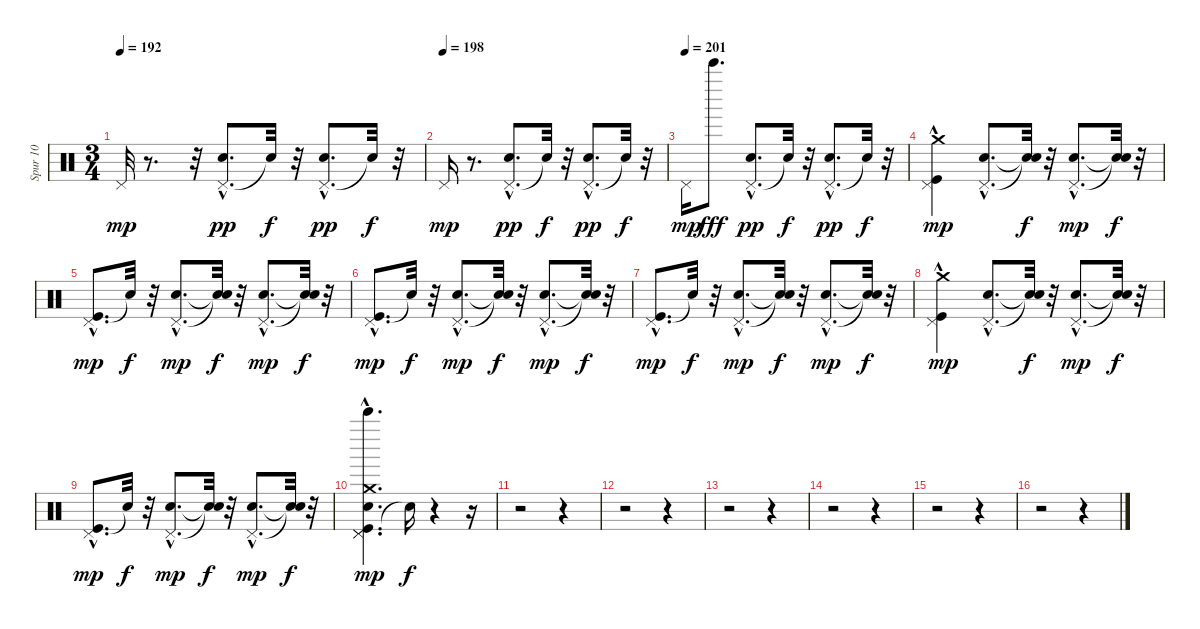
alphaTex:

\track ("Spur 10" "Spur 10") {instrument percussion}
\staff {score}
\articulation defaults
\ts (3 4)
\tempo 192
\clef neutral
\ks c "Pedal Hi-Hat (hit)".32{dy mp}
r.8{d} r.32 ("Pedal Hi-Hat (hit)"{hac} "Snare (hit) 2").8{d dy pp} "Snare (hit)"{t}.32{dy f} r.32 ("Pedal Hi-Hat (hit)"{hac} "Snare (hit) 2").8{d dy pp} "Snare (hit)"{t}.32{dy f} r.32 |
\tempo (198)
"Pedal Hi-Hat (hit)".16{dy mp} r.8{d} ("Pedal Hi-Hat (hit)"{hac} "Snare (hit) 2").8{d dy pp} "Snare (hit)"{t}.32{dy f} r.32 ("Pedal Hi-Hat (hit)"{hac} "Snare (hit) 2").8{d dy pp} "Snare (hit)"{t}.32{dy f} r.32 |
\tempo (201)
"Pedal Hi-Hat (hit)".16{dy mp} "Bell Tree (hit)".8{d dy fff} ("Pedal Hi-Hat (hit)"{hac} "Snare (hit) 2").8{d dy pp} "Snare (hit)"{t}.32{dy f} r.32 ("Pedal Hi-Hat (hit)"{hac} "Snare (hit) 2").8{d dy pp} "Snare (hit)"{t}.32{dy f} r.32 |
("Kick (hit)"{hac} "Crash medium (hit)" "Pedal Hi-Hat (hit)").4{dy mp} ("Snare (hit) 2"{hac} "Pedal Hi-Hat (hit)"{hac}).8{d} ("Snare (hit)"{t} "Snare (hit)"{t}).32{dy f} r.32 ("Snare (hit) 2"{hac} "Pedal Hi-Hat (hit)"{hac}).8{d dy mp} ("Snare (hit)"{t} "Snare (hit)"{t}).32{dy f} r.32 |
("Kick (hit)"{hac} "Pedal Hi-Hat (hit)").8{d dy mp} "Snare (hit)"{t}.32{dy f} r.32 ("Snare (hit) 2"{hac} "Pedal Hi-Hat (hit)"{hac}).8{d dy mp} ("Snare (hit)"{t} "Snare (hit)"{t}).32{dy f} r.32 ("Snare (hit) 2"{hac} "Pedal Hi-Hat (hit)"{hac}).8{d dy mp} ("Snare (hit)"{t} "Snare (hit)"{t}).32{dy f} r.32 |
("Kick (hit)"{hac} "Pedal Hi-Hat (hit)").8{d dy mp} "Snare (hit)"{t}.32{dy f} r.32 ("Snare (hit) 2"{hac} "Pedal Hi-Hat (hit)"{hac}).8{d dy mp} ("Snare (hit)"{t} "Snare (hit)"{t}).32{dy f} r.32 ("Snare (hit) 2"{hac} "Pedal Hi-Hat (hit)"{hac}).8{d dy mp} ("Snare (hit)"{t} "Snare (hit)"{t}).32{dy f} r.32 |
("Kick (hit)"{hac} "Pedal Hi-Hat (hit)").8{d dy mp} "Snare (hit)"{t}.32{dy f} r.32 ("Snare (hit) 2"{hac} "Pedal Hi-Hat (hit)"{hac}).8{d dy mp} ("Snare (hit)"{t} "Snare (hit)"{t}).32{dy f} r.32 ("Snare (hit) 2"{hac} "Pedal Hi-Hat (hit)"{hac}).8{d dy mp} ("Snare (hit)"{t} "Snare (hit)"{t}).32{dy f} r.32 |
("Kick (hit)"{hac} "Crash medium (hit)" "Pedal Hi-Hat (hit)").4{dy mp} ("Snare (hit) 2"{hac} "Pedal Hi-Hat (hit)"{hac}).8{d} ("Snare (hit)"{t} "Snare (hit)"{t}).32{dy f} r.32 ("Snare (hit) 2"{hac} "Pedal Hi-Hat (hit)"{hac}).8{d dy mp} ("Snare (hit)"{t} "Snare (hit)"{t}).32{dy f} r.32 |
("Kick (hit)"{hac} "Pedal Hi-Hat (hit)").8{d dy mp} "Snare (hit)"{t}.32{dy f} r.32 ("Snare (hit) 2"{hac} "Pedal Hi-Hat (hit)"{hac}).8{d dy mp} ("Snare (hit)"{t} "Snare (hit)"{t}).32{dy f} r.32 ("Snare (hit) 2"{hac} "Pedal Hi-Hat (hit)"{hac}).8{d dy mp} ("Snare (hit)"{t} "Snare (hit)"{t}).32{dy f} r.32 |
("Kick (hit)"{hac} "Snare (hit) 2"{hac} "Pedal Hi-Hat (hit)" "Crash medium (hit)" "Bell Tree (hit)"{hac} "Pedal Hi-Hat (hit)"{hac}).4{d dy mp} "Snare (hit)"{t}.16{dy f} r.4 r.16 |
r.2 r.4 |
r.2 r.4 |
r.2 r.4 |
r.2 r.4 |
r.2 r.4 |
r.2 r.4
